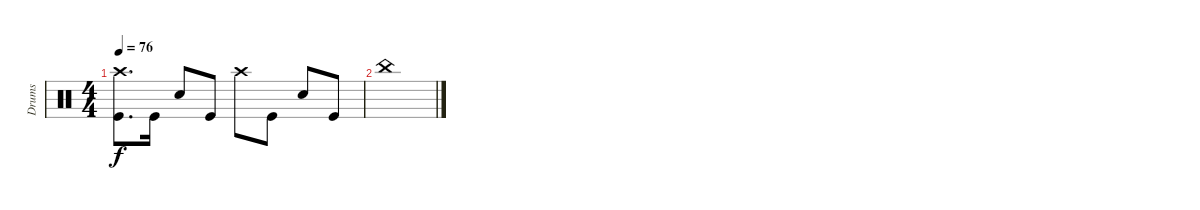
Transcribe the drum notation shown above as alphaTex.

\track ("Drums" "Drums") {instrument percussion}
\staff {score}
\articulation defaults
\ts (4 4)
\tempo 76
\clef neutral
\ks c
("Crash high (hit)" "Kick (hit)").8{d dy f} "Kick (hit)".16 "Snare (hit) 2".8 "Kick (hit)".8 "Crash high (hit)".8 "Kick (hit)".8 "Snare (hit) 2".8 "Kick (hit)".8 |
"China (hit)".1
